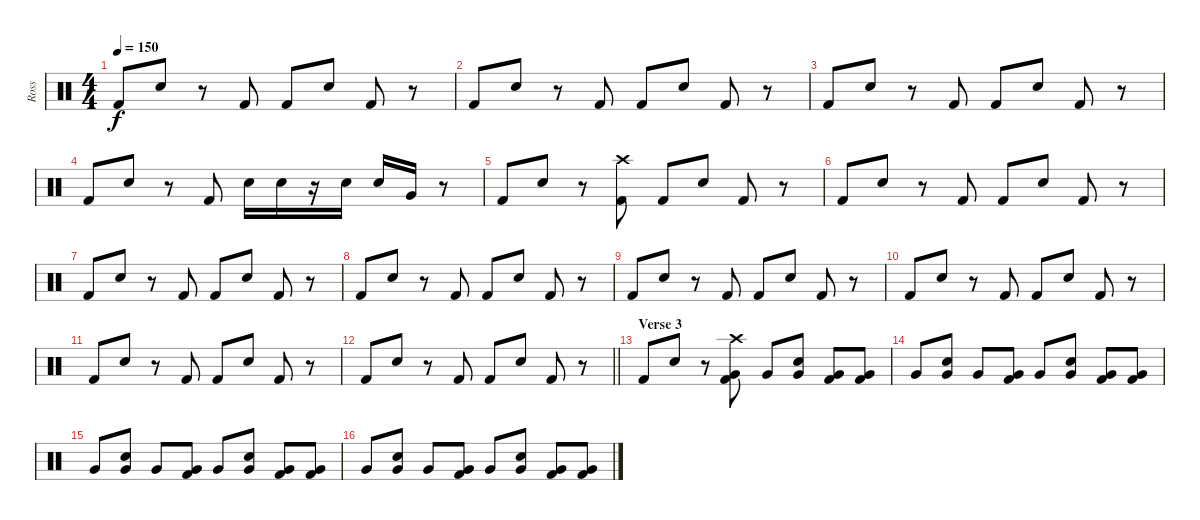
\track ("Ross" "Ross") {instrument percussion}
\staff {score}
\articulation defaults
\ts (4 4)
\tempo 150
\clef neutral
\ks c "Kick (hit) 2".8{dy f} "Snare (hit) 2".8
r.8 "Kick (hit) 2".8 "Kick (hit) 2".8 "Snare (hit) 2".8 "Kick (hit) 2".8 r.8 |
"Kick (hit) 2".8 "Snare (hit) 2".8 r.8 "Kick (hit) 2".8 "Kick (hit) 2".8 "Snare (hit) 2".8 "Kick (hit) 2".8 r.8 |
"Kick (hit) 2".8 "Snare (hit) 2".8 r.8 "Kick (hit) 2".8 "Kick (hit) 2".8 "Snare (hit) 2".8 "Kick (hit) 2".8 r.8 |
"Kick (hit) 2".8 "Snare (hit) 2".8 r.8 "Kick (hit) 2".8 "Snare (hit) 2".16 "Snare (hit) 2".16 r.16 "Snare (hit) 2".16 "Snare (hit) 2".16 "Very Low Tom (hit)".16 r.8 |
"Kick (hit) 2".8 "Snare (hit) 2".8 r.8 ("Crash high (hit)" "Kick (hit) 2").8 "Kick (hit) 2".8 "Snare (hit) 2".8 "Kick (hit) 2".8 r.8 |
"Kick (hit) 2".8 "Snare (hit) 2".8 r.8 "Kick (hit) 2".8 "Kick (hit) 2".8 "Snare (hit) 2".8 "Kick (hit) 2".8 r.8 |
"Kick (hit) 2".8 "Snare (hit) 2".8 r.8 "Kick (hit) 2".8 "Kick (hit) 2".8 "Snare (hit) 2".8 "Kick (hit) 2".8 r.8 |
"Kick (hit) 2".8 "Snare (hit) 2".8 r.8 "Kick (hit) 2".8 "Kick (hit) 2".8 "Snare (hit) 2".8 "Kick (hit) 2".8 r.8 |
"Kick (hit) 2".8 "Snare (hit) 2".8 r.8 "Kick (hit) 2".8 "Kick (hit) 2".8 "Snare (hit) 2".8 "Kick (hit) 2".8 r.8 |
"Kick (hit) 2".8 "Snare (hit) 2".8 r.8 "Kick (hit) 2".8 "Kick (hit) 2".8 "Snare (hit) 2".8 "Kick (hit) 2".8 r.8 |
"Kick (hit) 2".8 "Snare (hit) 2".8 r.8 "Kick (hit) 2".8 "Kick (hit) 2".8 "Snare (hit) 2".8 "Kick (hit) 2".8 r.8 |
\barLineRight lightlight "Kick (hit) 2".8 "Snare (hit) 2".8
r.8 "Kick (hit) 2".8 "Kick (hit) 2".8 "Snare (hit) 2".8 "Kick (hit) 2".8 r.8 |
\section ("" "Verse 3")
"Kick (hit) 2".8 "Snare (hit) 2".8 r.8 ("Crash high (hit)" "Very Low Tom (hit)" "Kick (hit) 2").8 "Very Low Tom (hit)".8 ("Very Low Tom (hit)" "Snare (hit) 2").8 ("Very Low Tom (hit)" "Kick (hit) 2").8 ("Very Low Tom (hit)" "Kick (hit) 2").8 |
"Very Low Tom (hit)".8 ("Very Low Tom (hit)" "Snare (hit) 2").8 "Very Low Tom (hit)".8 ("Very Low Tom (hit)" "Kick (hit) 2").8 "Very Low Tom (hit)".8 ("Very Low Tom (hit)" "Snare (hit) 2").8 ("Very Low Tom (hit)" "Kick (hit) 2").8 ("Very Low Tom (hit)" "Kick (hit) 2").8 |
"Very Low Tom (hit)".8 ("Very Low Tom (hit)" "Snare (hit) 2").8 "Very Low Tom (hit)".8 ("Very Low Tom (hit)" "Kick (hit) 2").8 "Very Low Tom (hit)".8 ("Very Low Tom (hit)" "Snare (hit) 2").8 ("Very Low Tom (hit)" "Kick (hit) 2").8 ("Very Low Tom (hit)" "Kick (hit) 2").8 |
"Very Low Tom (hit)".8 ("Very Low Tom (hit)" "Snare (hit) 2").8 "Very Low Tom (hit)".8 ("Very Low Tom (hit)" "Kick (hit) 2").8 "Very Low Tom (hit)".8 ("Very Low Tom (hit)" "Snare (hit) 2").8 ("Very Low Tom (hit)" "Kick (hit) 2").8 ("Very Low Tom (hit)" "Kick (hit) 2").8
